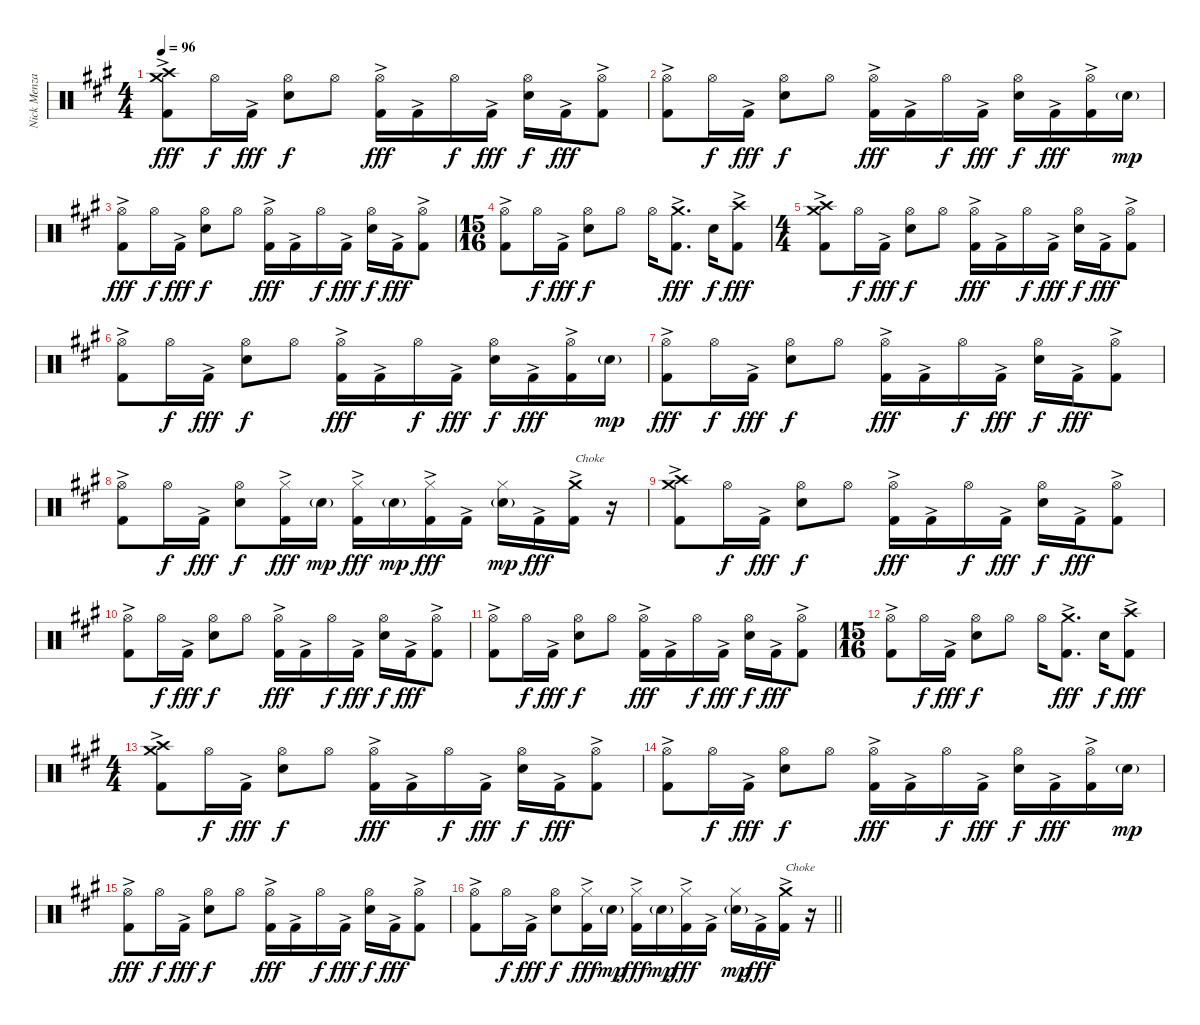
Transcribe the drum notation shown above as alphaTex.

\track ("Nick Menza" "Nick Menza") {instrument percussion}
\staff {score}
\articulation defaults
\ts (4 4)
\tempo 96
\clef neutral
\ks f#minor
("Crash high (hit)" "Crash medium (hit)" "Kick (hit) 2"{ac}).8{dy fff} "Hi-Hat (open)".16{dy f} "Kick (hit) 2"{ac}.16{dy fff} ("Hi-Hat (open)" "Snare (hit) 2").8{dy f} "Hi-Hat (open)".8 ("Hi-Hat (open)" "Kick (hit) 2"{ac}).16{dy fff} "Kick (hit) 2"{ac}.16 "Hi-Hat (open)".16{dy f} "Kick (hit) 2"{ac}.16{dy fff} ("Hi-Hat (open)" "Snare (hit) 2").16{dy f} "Kick (hit) 2"{ac}.16{dy fff} ("Hi-Hat (open)" "Kick (hit) 2"{ac}).8 |
("Hi-Hat (open)" "Kick (hit) 2"{ac}).8 "Hi-Hat (open)".16{dy f} "Kick (hit) 2"{ac}.16{dy fff} ("Hi-Hat (open)" "Snare (hit) 2").8{dy f} "Hi-Hat (open)".8 ("Hi-Hat (open)" "Kick (hit) 2"{ac}).16{dy fff} "Kick (hit) 2"{ac}.16 "Hi-Hat (open)".16{dy f} "Kick (hit) 2"{ac}.16{dy fff} ("Hi-Hat (open)" "Snare (hit) 2").16{dy f} "Kick (hit) 2"{ac}.16{dy fff} ("Hi-Hat (open)" "Kick (hit) 2"{ac}).16 "Snare (hit) 2"{g}.16{dy mp} |
("Hi-Hat (open)" "Kick (hit) 2"{ac}).8{dy fff} "Hi-Hat (open)".16{dy f} "Kick (hit) 2"{ac}.16{dy fff} ("Hi-Hat (open)" "Snare (hit) 2").8{dy f} "Hi-Hat (open)".8 ("Hi-Hat (open)" "Kick (hit) 2"{ac}).16{dy fff} "Kick (hit) 2"{ac}.16 "Hi-Hat (open)".16{dy f} "Kick (hit) 2"{ac}.16{dy fff} ("Hi-Hat (open)" "Snare (hit) 2").16{dy f} "Kick (hit) 2"{ac}.16{dy fff} ("Hi-Hat (open)" "Kick (hit) 2"{ac}).8 |
\ts (15 16)
("Hi-Hat (open)" "Kick (hit) 2"{ac}).8 "Hi-Hat (open)".16{dy f} "Kick (hit) 2"{ac}.16{dy fff} ("Hi-Hat (open)" "Snare (hit) 2").8{dy f} "Hi-Hat (open)".8 "Hi-Hat (open)".16 ("Crash medium (hit)" "Kick (hit) 2"{ac}).8{d dy fff} "Snare (hit) 2".16{dy f} ("Crash high (hit)" "Kick (hit) 2"{ac}).8{dy fff} |
\ts (4 4)
("Crash high (hit)" "Crash medium (hit)" "Kick (hit) 2"{ac}).8 "Hi-Hat (open)".16{dy f} "Kick (hit) 2"{ac}.16{dy fff} ("Hi-Hat (open)" "Snare (hit) 2").8{dy f} "Hi-Hat (open)".8 ("Hi-Hat (open)" "Kick (hit) 2"{ac}).16{dy fff} "Kick (hit) 2"{ac}.16 "Hi-Hat (open)".16{dy f} "Kick (hit) 2"{ac}.16{dy fff} ("Hi-Hat (open)" "Snare (hit) 2").16{dy f} "Kick (hit) 2"{ac}.16{dy fff} ("Hi-Hat (open)" "Kick (hit) 2"{ac}).8 |
("Hi-Hat (open)" "Kick (hit) 2"{ac}).8 "Hi-Hat (open)".16{dy f} "Kick (hit) 2"{ac}.16{dy fff} ("Hi-Hat (open)" "Snare (hit) 2").8{dy f} "Hi-Hat (open)".8 ("Hi-Hat (open)" "Kick (hit) 2"{ac}).16{dy fff} "Kick (hit) 2"{ac}.16 "Hi-Hat (open)".16{dy f} "Kick (hit) 2"{ac}.16{dy fff} ("Hi-Hat (open)" "Snare (hit) 2").16{dy f} "Kick (hit) 2"{ac}.16{dy fff} ("Hi-Hat (open)" "Kick (hit) 2"{ac}).16 "Snare (hit) 2"{g}.16{dy mp} |
("Hi-Hat (open)" "Kick (hit) 2"{ac}).8{dy fff} "Hi-Hat (open)".16{dy f} "Kick (hit) 2"{ac}.16{dy fff} ("Hi-Hat (open)" "Snare (hit) 2").8{dy f} "Hi-Hat (open)".8 ("Hi-Hat (open)" "Kick (hit) 2"{ac}).16{dy fff} "Kick (hit) 2"{ac}.16 "Hi-Hat (open)".16{dy f} "Kick (hit) 2"{ac}.16{dy fff} ("Hi-Hat (open)" "Snare (hit) 2").16{dy f} "Kick (hit) 2"{ac}.16{dy fff} ("Hi-Hat (open)" "Kick (hit) 2"{ac}).8 |
("Hi-Hat (open)" "Kick (hit) 2"{ac}).8 "Hi-Hat (open)".16{dy f} "Kick (hit) 2"{ac}.16{dy fff} ("Hi-Hat (open)" "Snare (hit) 2").8{dy f} ("Hi-Hat (closed)" "Kick (hit) 2"{ac}).16{dy fff} "Snare (hit) 2"{g}.16{dy mp} ("Hi-Hat (closed)" "Kick (hit) 2"{ac}).16{dy fff} "Snare (hit) 2"{g}.16{dy mp} ("Hi-Hat (closed)" "Kick (hit) 2"{ac}).16{dy fff} "Kick (hit) 2"{ac}.16 ("Hi-Hat (closed)" "Snare (hit) 2"{g}).16{dy mp} "Kick (hit) 2"{ac}.16{dy fff} ("Crash medium (hit)" "Kick (hit) 2"{ac}).16{txt "Choke"} r.16 |
("Crash high (hit)" "Crash medium (hit)" "Kick (hit) 2"{ac}).8 "Hi-Hat (open)".16{dy f} "Kick (hit) 2"{ac}.16{dy fff} ("Hi-Hat (open)" "Snare (hit) 2").8{dy f} "Hi-Hat (open)".8 ("Hi-Hat (open)" "Kick (hit) 2"{ac}).16{dy fff} "Kick (hit) 2"{ac}.16 "Hi-Hat (open)".16{dy f} "Kick (hit) 2"{ac}.16{dy fff} ("Hi-Hat (open)" "Snare (hit) 2").16{dy f} "Kick (hit) 2"{ac}.16{dy fff} ("Hi-Hat (open)" "Kick (hit) 2"{ac}).8 |
("Hi-Hat (open)" "Kick (hit) 2"{ac}).8 "Hi-Hat (open)".16{dy f} "Kick (hit) 2"{ac}.16{dy fff} ("Hi-Hat (open)" "Snare (hit) 2").8{dy f} "Hi-Hat (open)".8 ("Hi-Hat (open)" "Kick (hit) 2"{ac}).16{dy fff} "Kick (hit) 2"{ac}.16 "Hi-Hat (open)".16{dy f} "Kick (hit) 2"{ac}.16{dy fff} ("Hi-Hat (open)" "Snare (hit) 2").16{dy f} "Kick (hit) 2"{ac}.16{dy fff} ("Hi-Hat (open)" "Kick (hit) 2"{ac}).8 |
("Hi-Hat (open)" "Kick (hit) 2"{ac}).8 "Hi-Hat (open)".16{dy f} "Kick (hit) 2"{ac}.16{dy fff} ("Hi-Hat (open)" "Snare (hit) 2").8{dy f} "Hi-Hat (open)".8 ("Hi-Hat (open)" "Kick (hit) 2"{ac}).16{dy fff} "Kick (hit) 2"{ac}.16 "Hi-Hat (open)".16{dy f} "Kick (hit) 2"{ac}.16{dy fff} ("Hi-Hat (open)" "Snare (hit) 2").16{dy f} "Kick (hit) 2"{ac}.16{dy fff} ("Hi-Hat (open)" "Kick (hit) 2"{ac}).8 |
\ts (15 16)
("Hi-Hat (open)" "Kick (hit) 2"{ac}).8 "Hi-Hat (open)".16{dy f} "Kick (hit) 2"{ac}.16{dy fff} ("Hi-Hat (open)" "Snare (hit) 2").8{dy f} "Hi-Hat (open)".8 "Hi-Hat (open)".16 ("Crash medium (hit)" "Kick (hit) 2"{ac}).8{d dy fff} "Snare (hit) 2".16{dy f} ("Crash high (hit)" "Kick (hit) 2"{ac}).8{dy fff} |
\ts (4 4)
("Crash high (hit)" "Crash medium (hit)" "Kick (hit) 2"{ac}).8 "Hi-Hat (open)".16{dy f} "Kick (hit) 2"{ac}.16{dy fff} ("Hi-Hat (open)" "Snare (hit) 2").8{dy f} "Hi-Hat (open)".8 ("Hi-Hat (open)" "Kick (hit) 2"{ac}).16{dy fff} "Kick (hit) 2"{ac}.16 "Hi-Hat (open)".16{dy f} "Kick (hit) 2"{ac}.16{dy fff} ("Hi-Hat (open)" "Snare (hit) 2").16{dy f} "Kick (hit) 2"{ac}.16{dy fff} ("Hi-Hat (open)" "Kick (hit) 2"{ac}).8 |
("Hi-Hat (open)" "Kick (hit) 2"{ac}).8 "Hi-Hat (open)".16{dy f} "Kick (hit) 2"{ac}.16{dy fff} ("Hi-Hat (open)" "Snare (hit) 2").8{dy f} "Hi-Hat (open)".8 ("Hi-Hat (open)" "Kick (hit) 2"{ac}).16{dy fff} "Kick (hit) 2"{ac}.16 "Hi-Hat (open)".16{dy f} "Kick (hit) 2"{ac}.16{dy fff} ("Hi-Hat (open)" "Snare (hit) 2").16{dy f} "Kick (hit) 2"{ac}.16{dy fff} ("Hi-Hat (open)" "Kick (hit) 2"{ac}).16 "Snare (hit) 2"{g}.16{dy mp} |
("Hi-Hat (open)" "Kick (hit) 2"{ac}).8{dy fff} "Hi-Hat (open)".16{dy f} "Kick (hit) 2"{ac}.16{dy fff} ("Hi-Hat (open)" "Snare (hit) 2").8{dy f} "Hi-Hat (open)".8 ("Hi-Hat (open)" "Kick (hit) 2"{ac}).16{dy fff} "Kick (hit) 2"{ac}.16 "Hi-Hat (open)".16{dy f} "Kick (hit) 2"{ac}.16{dy fff} ("Hi-Hat (open)" "Snare (hit) 2").16{dy f} "Kick (hit) 2"{ac}.16{dy fff} ("Hi-Hat (open)" "Kick (hit) 2"{ac}).8 |
\barLineRight lightlight
("Hi-Hat (open)" "Kick (hit) 2"{ac}).8 "Hi-Hat (open)".16{dy f} "Kick (hit) 2"{ac}.16{dy fff} ("Hi-Hat (open)" "Snare (hit) 2").8{dy f} ("Hi-Hat (closed)" "Kick (hit) 2"{ac}).16{dy fff} "Snare (hit) 2"{g}.16{dy mp} ("Hi-Hat (closed)" "Kick (hit) 2"{ac}).16{dy fff} "Snare (hit) 2"{g}.16{dy mp} ("Hi-Hat (closed)" "Kick (hit) 2"{ac}).16{dy fff} "Kick (hit) 2"{ac}.16 ("Hi-Hat (closed)" "Snare (hit) 2"{g}).16{dy mp} "Kick (hit) 2"{ac}.16{dy fff} ("Crash medium (hit)" "Kick (hit) 2"{ac}).16{txt "Choke"} r.16
